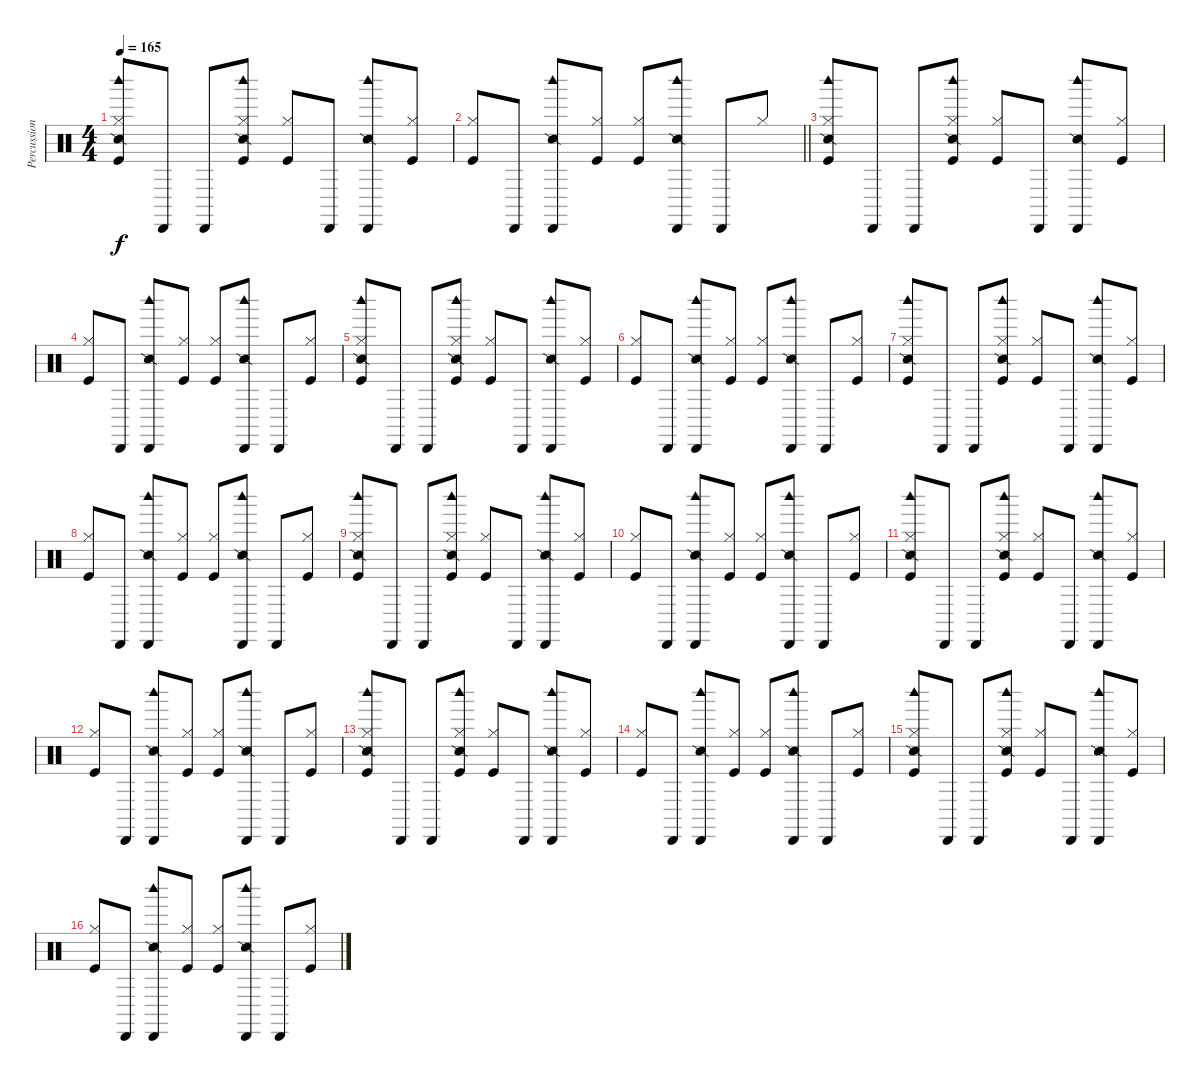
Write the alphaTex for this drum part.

\track ("Percussion" "Percussion") {instrument percussion}
\staff {score}
\articulation defaults
\ts (4 4)
\tempo 165
\clef neutral
\ks c
("Snare (side stick) 2" "Hi-Hat (closed)" "Woodblock high (hit)" "Kick (hit)").8{dy f} "Cabasa (hit)".8 "Cabasa (hit)".8 ("Snare (side stick) 2" "Hi-Hat (closed)" "Woodblock high (hit)" "Kick (hit)").8 ("Hi-Hat (closed)" "Kick (hit)").8 "Cabasa (hit)".8 ("Snare (side stick) 2" "Cabasa (hit)" "Woodblock high (hit)").8 ("Hi-Hat (closed)" "Kick (hit)").8 |
\barLineRight lightlight
("Hi-Hat (closed)" "Kick (hit)").8 "Cabasa (hit)".8 ("Snare (side stick) 2" "Cabasa (hit)" "Woodblock high (hit)").8 ("Hi-Hat (closed)" "Kick (hit)").8 ("Hi-Hat (closed)" "Kick (hit)").8 ("Snare (side stick) 2" "Cabasa (hit)" "Woodblock high (hit)").8 "Cabasa (hit)".8 "Hi-Hat (closed)".8 |
("Snare (side stick) 2" "Hi-Hat (closed)" "Woodblock high (hit)" "Kick (hit)").8 "Cabasa (hit)".8 "Cabasa (hit)".8 ("Snare (side stick) 2" "Hi-Hat (closed)" "Woodblock high (hit)" "Kick (hit)").8 ("Hi-Hat (closed)" "Kick (hit)").8 "Cabasa (hit)".8 ("Snare (side stick) 2" "Cabasa (hit)" "Woodblock high (hit)").8 ("Hi-Hat (closed)" "Kick (hit)").8 |
("Hi-Hat (closed)" "Kick (hit)").8 "Cabasa (hit)".8 ("Snare (side stick) 2" "Cabasa (hit)" "Woodblock high (hit)").8 ("Hi-Hat (closed)" "Kick (hit)").8 ("Hi-Hat (closed)" "Kick (hit)").8 ("Snare (side stick) 2" "Cabasa (hit)" "Woodblock high (hit)").8 "Cabasa (hit)".8 ("Hi-Hat (closed)" "Kick (hit)").8 |
("Snare (side stick) 2" "Hi-Hat (closed)" "Woodblock high (hit)" "Kick (hit)").8 "Cabasa (hit)".8 "Cabasa (hit)".8 ("Snare (side stick) 2" "Hi-Hat (closed)" "Woodblock high (hit)" "Kick (hit)").8 ("Hi-Hat (closed)" "Kick (hit)").8 "Cabasa (hit)".8 ("Snare (side stick) 2" "Cabasa (hit)" "Woodblock high (hit)").8 ("Hi-Hat (closed)" "Kick (hit)").8 |
("Hi-Hat (closed)" "Kick (hit)").8 "Cabasa (hit)".8 ("Snare (side stick) 2" "Cabasa (hit)" "Woodblock high (hit)").8 ("Hi-Hat (closed)" "Kick (hit)").8 ("Hi-Hat (closed)" "Kick (hit)").8 ("Snare (side stick) 2" "Cabasa (hit)" "Woodblock high (hit)").8 "Cabasa (hit)".8 ("Hi-Hat (closed)" "Kick (hit)").8 |
("Snare (side stick) 2" "Hi-Hat (closed)" "Woodblock high (hit)" "Kick (hit)").8 "Cabasa (hit)".8 "Cabasa (hit)".8 ("Snare (side stick) 2" "Hi-Hat (closed)" "Woodblock high (hit)" "Kick (hit)").8 ("Hi-Hat (closed)" "Kick (hit)").8 "Cabasa (hit)".8 ("Snare (side stick) 2" "Cabasa (hit)" "Woodblock high (hit)").8 ("Hi-Hat (closed)" "Kick (hit)").8 |
("Hi-Hat (closed)" "Kick (hit)").8 "Cabasa (hit)".8 ("Snare (side stick) 2" "Cabasa (hit)" "Woodblock high (hit)").8 ("Hi-Hat (closed)" "Kick (hit)").8 ("Hi-Hat (closed)" "Kick (hit)").8 ("Snare (side stick) 2" "Cabasa (hit)" "Woodblock high (hit)").8 "Cabasa (hit)".8 ("Hi-Hat (closed)" "Kick (hit)").8 |
("Snare (side stick) 2" "Hi-Hat (closed)" "Woodblock high (hit)" "Kick (hit)").8 "Cabasa (hit)".8 "Cabasa (hit)".8 ("Snare (side stick) 2" "Hi-Hat (closed)" "Woodblock high (hit)" "Kick (hit)").8 ("Hi-Hat (closed)" "Kick (hit)").8 "Cabasa (hit)".8 ("Snare (side stick) 2" "Cabasa (hit)" "Woodblock high (hit)").8 ("Hi-Hat (closed)" "Kick (hit)").8 |
("Hi-Hat (closed)" "Kick (hit)").8 "Cabasa (hit)".8 ("Snare (side stick) 2" "Cabasa (hit)" "Woodblock high (hit)").8 ("Hi-Hat (closed)" "Kick (hit)").8 ("Hi-Hat (closed)" "Kick (hit)").8 ("Snare (side stick) 2" "Cabasa (hit)" "Woodblock high (hit)").8 "Cabasa (hit)".8 ("Hi-Hat (closed)" "Kick (hit)").8 |
("Snare (side stick) 2" "Hi-Hat (closed)" "Woodblock high (hit)" "Kick (hit)").8 "Cabasa (hit)".8 "Cabasa (hit)".8 ("Snare (side stick) 2" "Hi-Hat (closed)" "Woodblock high (hit)" "Kick (hit)").8 ("Hi-Hat (closed)" "Kick (hit)").8 "Cabasa (hit)".8 ("Snare (side stick) 2" "Cabasa (hit)" "Woodblock high (hit)").8 ("Hi-Hat (closed)" "Kick (hit)").8 |
("Hi-Hat (closed)" "Kick (hit)").8 "Cabasa (hit)".8 ("Snare (side stick) 2" "Cabasa (hit)" "Woodblock high (hit)").8 ("Hi-Hat (closed)" "Kick (hit)").8 ("Hi-Hat (closed)" "Kick (hit)").8 ("Snare (side stick) 2" "Cabasa (hit)" "Woodblock high (hit)").8 "Cabasa (hit)".8 ("Hi-Hat (closed)" "Kick (hit)").8 |
("Snare (side stick) 2" "Hi-Hat (closed)" "Woodblock high (hit)" "Kick (hit)").8 "Cabasa (hit)".8 "Cabasa (hit)".8 ("Snare (side stick) 2" "Hi-Hat (closed)" "Woodblock high (hit)" "Kick (hit)").8 ("Hi-Hat (closed)" "Kick (hit)").8 "Cabasa (hit)".8 ("Snare (side stick) 2" "Cabasa (hit)" "Woodblock high (hit)").8 ("Hi-Hat (closed)" "Kick (hit)").8 |
("Hi-Hat (closed)" "Kick (hit)").8 "Cabasa (hit)".8 ("Snare (side stick) 2" "Cabasa (hit)" "Woodblock high (hit)").8 ("Hi-Hat (closed)" "Kick (hit)").8 ("Hi-Hat (closed)" "Kick (hit)").8 ("Snare (side stick) 2" "Cabasa (hit)" "Woodblock high (hit)").8 "Cabasa (hit)".8 ("Hi-Hat (closed)" "Kick (hit)").8 |
("Snare (side stick) 2" "Hi-Hat (closed)" "Woodblock high (hit)" "Kick (hit)").8 "Cabasa (hit)".8 "Cabasa (hit)".8 ("Snare (side stick) 2" "Hi-Hat (closed)" "Woodblock high (hit)" "Kick (hit)").8 ("Hi-Hat (closed)" "Kick (hit)").8 "Cabasa (hit)".8 ("Snare (side stick) 2" "Cabasa (hit)" "Woodblock high (hit)").8 ("Hi-Hat (closed)" "Kick (hit)").8 |
("Hi-Hat (closed)" "Kick (hit)").8 "Cabasa (hit)".8 ("Snare (side stick) 2" "Cabasa (hit)" "Woodblock high (hit)").8 ("Hi-Hat (closed)" "Kick (hit)").8 ("Hi-Hat (closed)" "Kick (hit)").8 ("Snare (side stick) 2" "Cabasa (hit)" "Woodblock high (hit)").8 "Cabasa (hit)".8 ("Hi-Hat (closed)" "Kick (hit)").8
